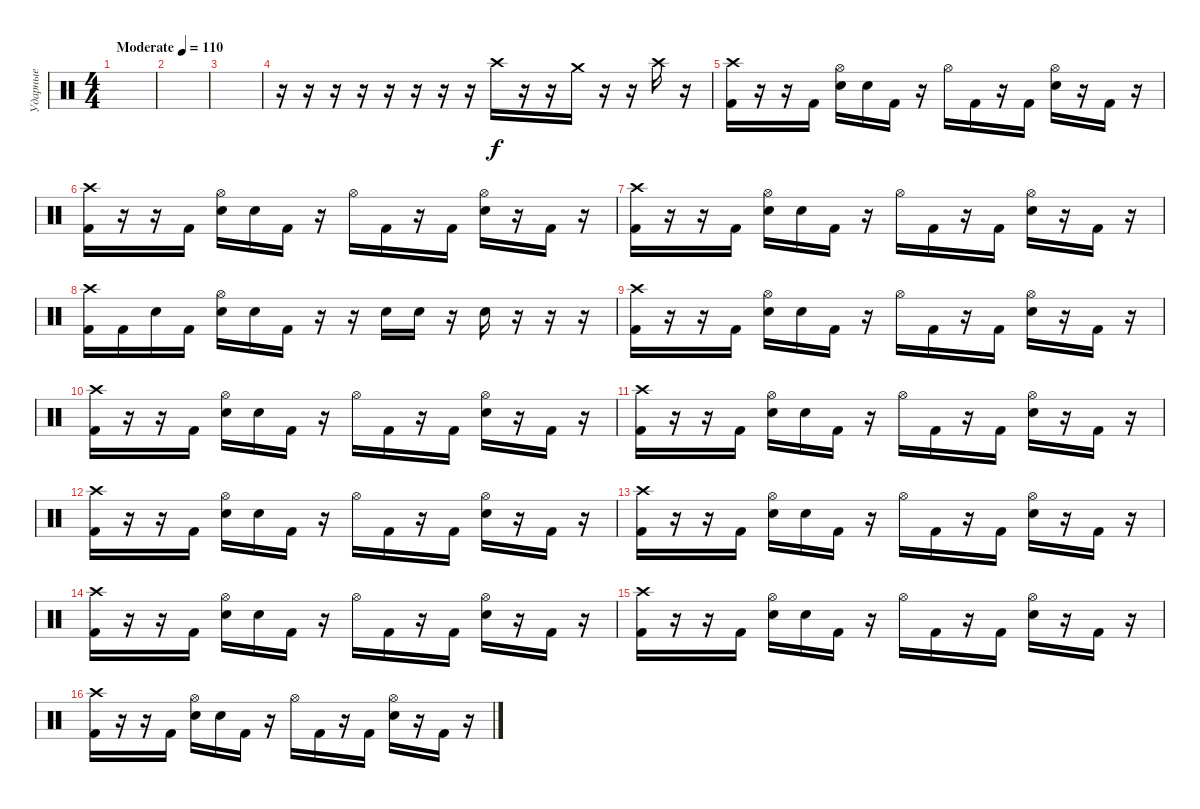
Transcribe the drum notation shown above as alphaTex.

\track ("Ударные" "Ударные") {instrument percussion}
\staff {score}
\articulation defaults
\ts (4 4)
\tempo (110 "Moderate")
\clef neutral
\ks c
|
|
|
r.16 r.16 r.16 r.16 r.16 r.16 r.16 r.16 "Crash high (hit)".16 r.16 r.16 "Crash medium (hit)".16 r.16 r.16 "Crash high (hit)".16 r.16 |
("Crash high (hit)" "Kick (hit) 2").16{dy f} r.16 r.16 "Kick (hit) 2".16 ("Hi-Hat (open)" "Electric Snare (hit)").16 "Electric Snare (hit)".16 "Kick (hit) 2".16 r.16 "Hi-Hat (open)".16 "Kick (hit) 2".16 r.16 "Kick (hit) 2".16 ("Hi-Hat (open)" "Electric Snare (hit)").16 r.16 "Kick (hit) 2".16 r.16 |
("Crash high (hit)" "Kick (hit) 2").16 r.16 r.16 "Kick (hit) 2".16 ("Hi-Hat (open)" "Electric Snare (hit)").16 "Electric Snare (hit)".16 "Kick (hit) 2".16 r.16 "Hi-Hat (open)".16 "Kick (hit) 2".16 r.16 "Kick (hit) 2".16 ("Hi-Hat (open)" "Electric Snare (hit)").16 r.16 "Kick (hit) 2".16 r.16 |
("Crash high (hit)" "Kick (hit) 2").16 r.16 r.16 "Kick (hit) 2".16 ("Hi-Hat (open)" "Electric Snare (hit)").16 "Electric Snare (hit)".16 "Kick (hit) 2".16 r.16 "Hi-Hat (open)".16 "Kick (hit) 2".16 r.16 "Kick (hit) 2".16 ("Hi-Hat (open)" "Electric Snare (hit)").16 r.16 "Kick (hit) 2".16 r.16 |
("Crash high (hit)" "Kick (hit) 2").16 "Kick (hit) 2".16 "Electric Snare (hit)".16 "Kick (hit) 2".16 ("Hi-Hat (open)" "Electric Snare (hit)").16 "Electric Snare (hit)".16 "Kick (hit) 2".16 r.16 r.16 "Electric Snare (hit)".16 "Electric Snare (hit)".16 r.16 "Electric Snare (hit)".16 r.16 r.16 r.16 |
("Crash high (hit)" "Kick (hit) 2").16 r.16 r.16 "Kick (hit) 2".16 ("Hi-Hat (open)" "Electric Snare (hit)").16 "Electric Snare (hit)".16 "Kick (hit) 2".16 r.16 "Hi-Hat (open)".16 "Kick (hit) 2".16 r.16 "Kick (hit) 2".16 ("Hi-Hat (open)" "Electric Snare (hit)").16 r.16 "Kick (hit) 2".16 r.16 |
("Crash high (hit)" "Kick (hit) 2").16 r.16 r.16 "Kick (hit) 2".16 ("Hi-Hat (open)" "Electric Snare (hit)").16 "Electric Snare (hit)".16 "Kick (hit) 2".16 r.16 "Hi-Hat (open)".16 "Kick (hit) 2".16 r.16 "Kick (hit) 2".16 ("Hi-Hat (open)" "Electric Snare (hit)").16 r.16 "Kick (hit) 2".16 r.16 |
("Crash high (hit)" "Kick (hit) 2").16 r.16 r.16 "Kick (hit) 2".16 ("Hi-Hat (open)" "Electric Snare (hit)").16 "Electric Snare (hit)".16 "Kick (hit) 2".16 r.16 "Hi-Hat (open)".16 "Kick (hit) 2".16 r.16 "Kick (hit) 2".16 ("Hi-Hat (open)" "Electric Snare (hit)").16 r.16 "Kick (hit) 2".16 r.16 |
("Crash high (hit)" "Kick (hit) 2").16 r.16 r.16 "Kick (hit) 2".16 ("Hi-Hat (open)" "Electric Snare (hit)").16 "Electric Snare (hit)".16 "Kick (hit) 2".16 r.16 "Hi-Hat (open)".16 "Kick (hit) 2".16 r.16 "Kick (hit) 2".16 ("Hi-Hat (open)" "Electric Snare (hit)").16 r.16 "Kick (hit) 2".16 r.16 |
("Crash high (hit)" "Kick (hit) 2").16 r.16 r.16 "Kick (hit) 2".16 ("Hi-Hat (open)" "Electric Snare (hit)").16 "Electric Snare (hit)".16 "Kick (hit) 2".16 r.16 "Hi-Hat (open)".16 "Kick (hit) 2".16 r.16 "Kick (hit) 2".16 ("Hi-Hat (open)" "Electric Snare (hit)").16 r.16 "Kick (hit) 2".16 r.16 |
("Crash high (hit)" "Kick (hit) 2").16 r.16 r.16 "Kick (hit) 2".16 ("Hi-Hat (open)" "Electric Snare (hit)").16 "Electric Snare (hit)".16 "Kick (hit) 2".16 r.16 "Hi-Hat (open)".16 "Kick (hit) 2".16 r.16 "Kick (hit) 2".16 ("Hi-Hat (open)" "Electric Snare (hit)").16 r.16 "Kick (hit) 2".16 r.16 |
("Crash high (hit)" "Kick (hit) 2").16 r.16 r.16 "Kick (hit) 2".16 ("Hi-Hat (open)" "Electric Snare (hit)").16 "Electric Snare (hit)".16 "Kick (hit) 2".16 r.16 "Hi-Hat (open)".16 "Kick (hit) 2".16 r.16 "Kick (hit) 2".16 ("Hi-Hat (open)" "Electric Snare (hit)").16 r.16 "Kick (hit) 2".16 r.16 |
("Crash high (hit)" "Kick (hit) 2").16 r.16 r.16 "Kick (hit) 2".16 ("Hi-Hat (open)" "Electric Snare (hit)").16 "Electric Snare (hit)".16 "Kick (hit) 2".16 r.16 "Hi-Hat (open)".16 "Kick (hit) 2".16 r.16 "Kick (hit) 2".16 ("Hi-Hat (open)" "Electric Snare (hit)").16 r.16 "Kick (hit) 2".16 r.16
